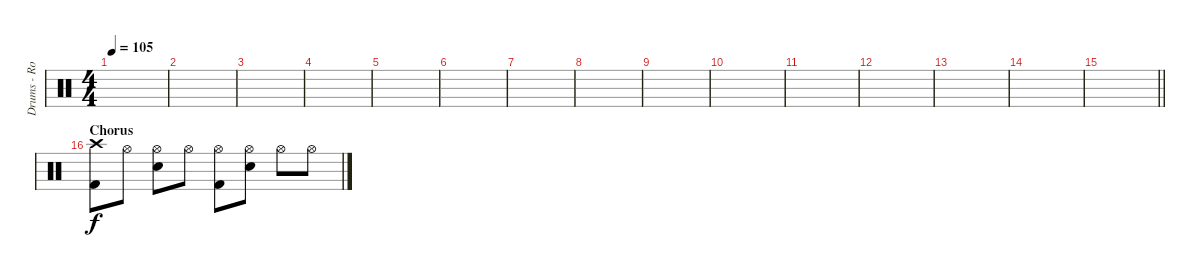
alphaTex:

\track ("Drums - Rob Bourdon" "Drums - Ro") {instrument percussion}
\staff {score}
\articulation defaults
\ts (4 4)
\tempo 105
\clef neutral
\ks c
|
|
|
|
|
|
|
|
|
|
|
|
|
|
\barLineRight lightlight
|
\section ("" "Chorus")
("Crash high (hit)" "Kick (hit) 2").8 "Hi-Hat (open)".8 ("Hi-Hat (open)" "Snare (hit) 2").8 "Hi-Hat (open)".8 ("Hi-Hat (open)" "Kick (hit) 2").8 ("Hi-Hat (open)" "Snare (hit) 2").8 "Hi-Hat (open)".8 "Hi-Hat (open)".8
